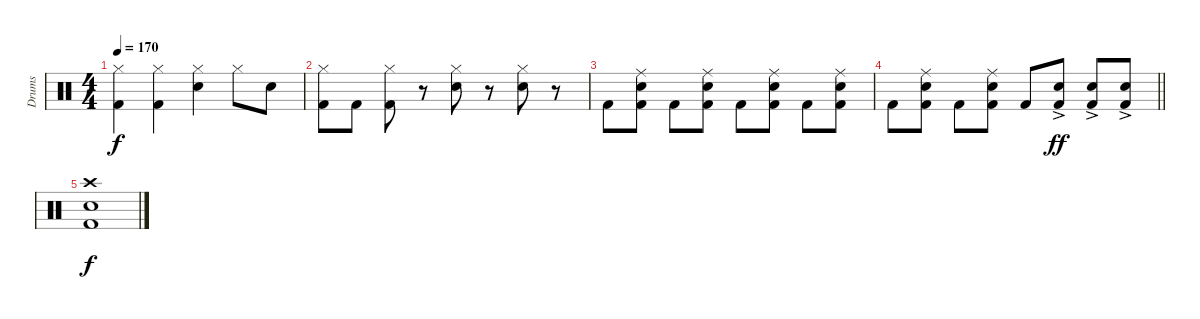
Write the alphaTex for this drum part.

\track ("Drums" "Drums") {instrument percussion}
\staff {score}
\articulation defaults
\ts (4 4)
\tempo 170
\clef neutral
\ks c
("Hi-Hat (closed)" "Kick (hit) 2").4{dy f} ("Hi-Hat (closed)" "Kick (hit) 2").4 ("Hi-Hat (closed)" "Snare (hit) 2").4 "Hi-Hat (closed)".8 "Snare (hit) 2".8 |
("Hi-Hat (closed)" "Kick (hit) 2").8 "Kick (hit) 2".8 ("Hi-Hat (closed)" "Kick (hit) 2").8 r.8 ("Hi-Hat (closed)" "Snare (hit) 2").8 r.8 ("Hi-Hat (closed)" "Snare (hit) 2").8 r.8 |
"Kick (hit) 2".8 ("Ride (middle)" "Snare (hit) 2" "Kick (hit) 2").8 "Kick (hit) 2".8 ("Ride (middle)" "Snare (hit) 2" "Kick (hit) 2").8 "Kick (hit) 2".8 ("Ride (middle)" "Snare (hit) 2" "Kick (hit) 2").8 "Kick (hit) 2".8 ("Ride (middle)" "Snare (hit) 2" "Kick (hit) 2").8 |
\barLineRight lightlight "Kick (hit) 2".8
("Ride (middle)" "Snare (hit) 2" "Kick (hit) 2").8 "Kick (hit) 2".8 ("Ride (middle)" "Snare (hit) 2" "Kick (hit) 2").8 "Kick (hit) 2".8 ("Snare (hit) 2"{ac} "Kick (hit) 2").8{dy ff} ("Snare (hit) 2"{ac} "Kick (hit) 2").8 ("Snare (hit) 2"{ac} "Kick (hit) 2").8 |
("Crash high (hit)" "Snare (hit) 2" "Kick (hit) 2").1{dy f}
